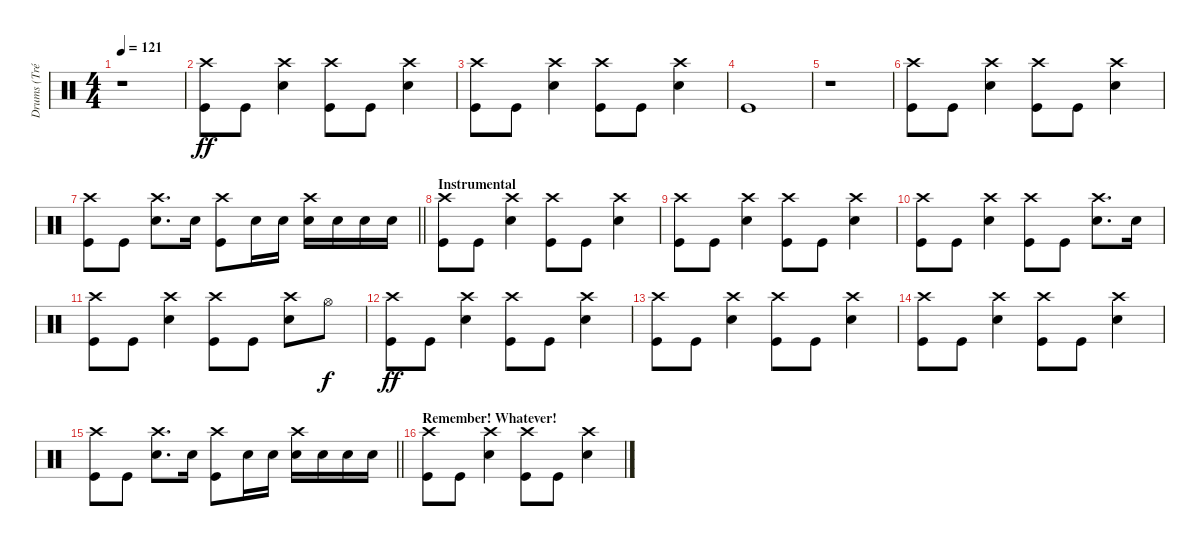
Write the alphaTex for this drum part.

\track ("Drums (Tré)" "Drums (Tré") {instrument percussion}
\staff {score}
\articulation defaults
\ts (4 4)
\tempo 121
\clef neutral
\ks c
r.1{dy ff} |
("Crash high (hit)" "Kick (hit)").8 "Kick (hit)".8 ("Crash high (hit)" "Snare (hit) 2").4 ("Crash high (hit)" "Kick (hit)").8 "Kick (hit)".8 ("Crash high (hit)" "Snare (hit) 2").4 |
("Crash high (hit)" "Kick (hit)").8 "Kick (hit)".8 ("Crash high (hit)" "Snare (hit) 2").4 ("Crash high (hit)" "Kick (hit)").8 "Kick (hit)".8 ("Crash high (hit)" "Snare (hit) 2").4 |
"Kick (hit)".1 |
r.1 |
("Crash high (hit)" "Kick (hit)").8 "Kick (hit)".8 ("Crash high (hit)" "Snare (hit) 2").4 ("Crash high (hit)" "Kick (hit)").8 "Kick (hit)".8 ("Crash high (hit)" "Snare (hit) 2").4 |
\barLineRight lightlight
("Crash high (hit)" "Kick (hit)").8 "Kick (hit)".8 ("Crash high (hit)" "Snare (hit) 2").8{d} "Snare (hit) 2".16 ("Crash high (hit)" "Kick (hit)").8 "Snare (hit) 2".16 "Snare (hit) 2".16 ("Crash high (hit)" "Snare (hit) 2").16 "Snare (hit) 2".16 "Snare (hit) 2".16 "Snare (hit) 2".16 |
\section ("" "Instrumental")
("Crash high (hit)" "Kick (hit)").8 "Kick (hit)".8 ("Crash high (hit)" "Snare (hit) 2").4 ("Crash high (hit)" "Kick (hit)").8 "Kick (hit)".8 ("Crash high (hit)" "Snare (hit) 2").4 |
("Crash high (hit)" "Kick (hit)").8 "Kick (hit)".8 ("Crash high (hit)" "Snare (hit) 2").4 ("Crash high (hit)" "Kick (hit)").8 "Kick (hit)".8 ("Crash high (hit)" "Snare (hit) 2").4 |
("Crash high (hit)" "Kick (hit)").8 "Kick (hit)".8 ("Crash high (hit)" "Snare (hit) 2").4 ("Crash high (hit)" "Kick (hit)").8 "Kick (hit)".8 ("Crash high (hit)" "Snare (hit) 2").8{d} "Snare (hit) 2".16 |
("Crash high (hit)" "Kick (hit)").8 "Kick (hit)".8 ("Crash high (hit)" "Snare (hit) 2").4 ("Crash high (hit)" "Kick (hit)").8 "Kick (hit)".8 ("Crash high (hit)" "Snare (hit) 2").8 "Hi-Hat (open)".8{dy f} |
("Crash high (hit)" "Kick (hit)").8{dy ff} "Kick (hit)".8 ("Crash high (hit)" "Snare (hit) 2").4 ("Crash high (hit)" "Kick (hit)").8 "Kick (hit)".8 ("Crash high (hit)" "Snare (hit) 2").4 |
("Crash high (hit)" "Kick (hit)").8 "Kick (hit)".8 ("Crash high (hit)" "Snare (hit) 2").4 ("Crash high (hit)" "Kick (hit)").8 "Kick (hit)".8 ("Crash high (hit)" "Snare (hit) 2").4 |
("Crash high (hit)" "Kick (hit)").8 "Kick (hit)".8 ("Crash high (hit)" "Snare (hit) 2").4 ("Crash high (hit)" "Kick (hit)").8 "Kick (hit)".8 ("Crash high (hit)" "Snare (hit) 2").4 |
\barLineRight lightlight
("Crash high (hit)" "Kick (hit)").8 "Kick (hit)".8 ("Crash high (hit)" "Snare (hit) 2").8{d} "Snare (hit) 2".16 ("Crash high (hit)" "Kick (hit)").8 "Snare (hit) 2".16 "Snare (hit) 2".16 ("Crash high (hit)" "Snare (hit) 2").16 "Snare (hit) 2".16 "Snare (hit) 2".16 "Snare (hit) 2".16 |
\section ("" "Remember! Whatever!")
("Crash high (hit)" "Kick (hit)").8 "Kick (hit)".8 ("Crash high (hit)" "Snare (hit) 2").4 ("Crash high (hit)" "Kick (hit)").8 "Kick (hit)".8 ("Crash high (hit)" "Snare (hit) 2").4
